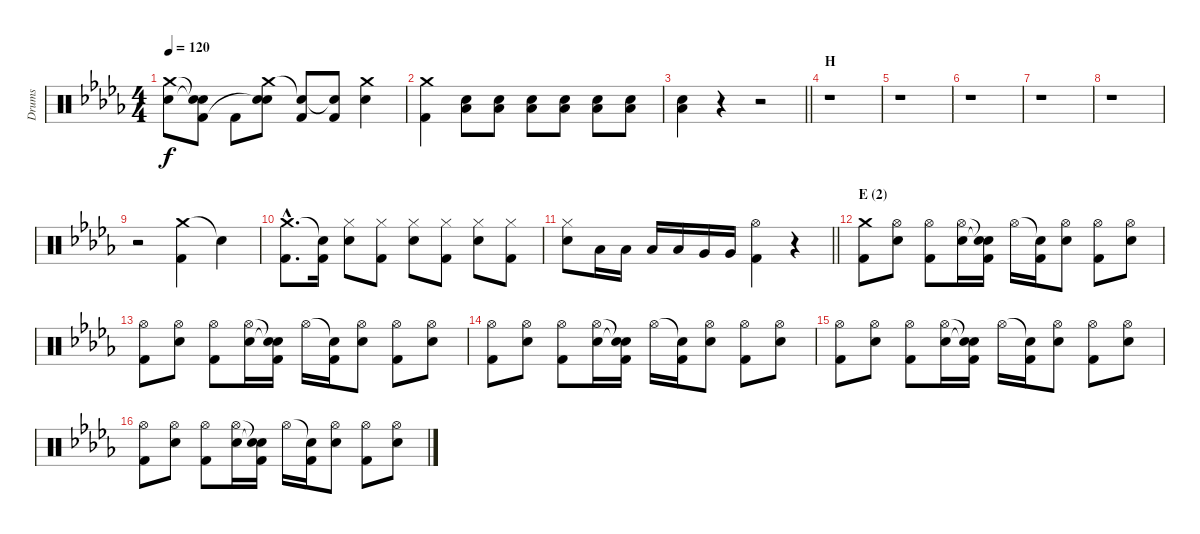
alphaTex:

\track ("Drums" "Drums") {instrument percussion}
\staff {score}
\articulation defaults
\ts (4 4)
\tempo 120
\clef neutral
\ks db
("Crash medium (hit)" "Electric Snare (hit)").8{dy f} ("Snare (hit)"{t} "Snare (hit)"{t} "Kick (hit) 2").8 "Kick (hit) 2".8 ("Crash medium (hit)" "Electric Snare (hit)" "Snare (hit)"{t}).8 ("Snare (hit)"{t} "Kick (hit) 2").8 ("Snare (hit)"{t} "Kick (hit) 2").8 ("Crash medium (hit)" "Electric Snare (hit)").4 |
("Crash medium (hit)" "Kick (hit) 2").4 ("Electric Snare (hit)" "Low Floor Tom (hit)").8 ("Electric Snare (hit)" "Low Floor Tom (hit)").8 ("Electric Snare (hit)" "Low Floor Tom (hit)").8 ("Electric Snare (hit)" "Low Floor Tom (hit)").8 ("Electric Snare (hit)" "Low Floor Tom (hit)").8 ("Electric Snare (hit)" "Low Floor Tom (hit)").8 |
\barLineRight lightlight
("Electric Snare (hit)" "Low Floor Tom (hit)").4 r.4 r.2 |
\section ("" "H")
r.1 |
r.1 |
r.1 |
r.1 |
r.1 |
r.2 ("Crash medium (hit)" "Kick (hit) 2").4 "Snare (hit)"{t}.4 |
("Crash medium (hit)"{hac} "Kick (hit) 2"{hac}).8{d} ("Snare (hit)"{t} "Kick (hit) 2").16 ("Hi-Hat (closed)" "Electric Snare (hit)").8 ("Hi-Hat (closed)" "Kick (hit) 2").8 ("Hi-Hat (closed)" "Electric Snare (hit)").8 ("Hi-Hat (closed)" "Kick (hit) 2").8 ("Hi-Hat (closed)" "Electric Snare (hit)").8 ("Hi-Hat (closed)" "Kick (hit) 2").8 |
\barLineRight lightlight
("Hi-Hat (closed)" "Electric Snare (hit)").8 "Low Tom (hit)".16 "Low Tom (hit)".16 "Low Tom (hit)".16 "Low Tom (hit)".16 "Very Low Tom (hit)".16 "Very Low Tom (hit)".16 ("Hi-Hat (open)" "Kick (hit) 2").4 r.4 |
\section ("" "E (2)")
("Crash medium (hit)" "Kick (hit) 2").8 ("Hi-Hat (open)" "Electric Snare (hit)").8 ("Hi-Hat (open)" "Kick (hit) 2").8 ("Hi-Hat (open)" "Electric Snare (hit)").16 ("Snare (hit)"{t} "Snare (hit)"{t} "Kick (hit) 2").16 "Hi-Hat (open)".16 ("Snare (hit)"{t} "Kick (hit) 2").16 ("Hi-Hat (open)" "Electric Snare (hit)").8 ("Hi-Hat (open)" "Kick (hit) 2").8 ("Hi-Hat (open)" "Electric Snare (hit)").8 |
("Hi-Hat (open)" "Kick (hit) 2").8 ("Hi-Hat (open)" "Electric Snare (hit)").8 ("Hi-Hat (open)" "Kick (hit) 2").8 ("Hi-Hat (open)" "Electric Snare (hit)").16 ("Snare (hit)"{t} "Snare (hit)"{t} "Kick (hit) 2").16 "Hi-Hat (open)".16 ("Snare (hit)"{t} "Kick (hit) 2").16 ("Hi-Hat (open)" "Electric Snare (hit)").8 ("Hi-Hat (open)" "Kick (hit) 2").8 ("Hi-Hat (open)" "Electric Snare (hit)").8 |
("Hi-Hat (open)" "Kick (hit) 2").8 ("Hi-Hat (open)" "Electric Snare (hit)").8 ("Hi-Hat (open)" "Kick (hit) 2").8 ("Hi-Hat (open)" "Electric Snare (hit)").16 ("Snare (hit)"{t} "Snare (hit)"{t} "Kick (hit) 2").16 "Hi-Hat (open)".16 ("Snare (hit)"{t} "Kick (hit) 2").16 ("Hi-Hat (open)" "Electric Snare (hit)").8 ("Hi-Hat (open)" "Kick (hit) 2").8 ("Hi-Hat (open)" "Electric Snare (hit)").8 |
("Hi-Hat (open)" "Kick (hit) 2").8 ("Hi-Hat (open)" "Electric Snare (hit)").8 ("Hi-Hat (open)" "Kick (hit) 2").8 ("Hi-Hat (open)" "Electric Snare (hit)").16 ("Snare (hit)"{t} "Snare (hit)"{t} "Kick (hit) 2").16 "Hi-Hat (open)".16 ("Snare (hit)"{t} "Kick (hit) 2").16 ("Hi-Hat (open)" "Electric Snare (hit)").8 ("Hi-Hat (open)" "Kick (hit) 2").8 ("Hi-Hat (open)" "Electric Snare (hit)").8 |
("Hi-Hat (open)" "Kick (hit) 2").8 ("Hi-Hat (open)" "Electric Snare (hit)").8 ("Hi-Hat (open)" "Kick (hit) 2").8 ("Hi-Hat (open)" "Electric Snare (hit)").16 ("Snare (hit)"{t} "Snare (hit)"{t} "Kick (hit) 2").16 "Hi-Hat (open)".16 ("Snare (hit)"{t} "Kick (hit) 2").16 ("Hi-Hat (open)" "Electric Snare (hit)").8 ("Hi-Hat (open)" "Kick (hit) 2").8 ("Hi-Hat (open)" "Electric Snare (hit)").8
